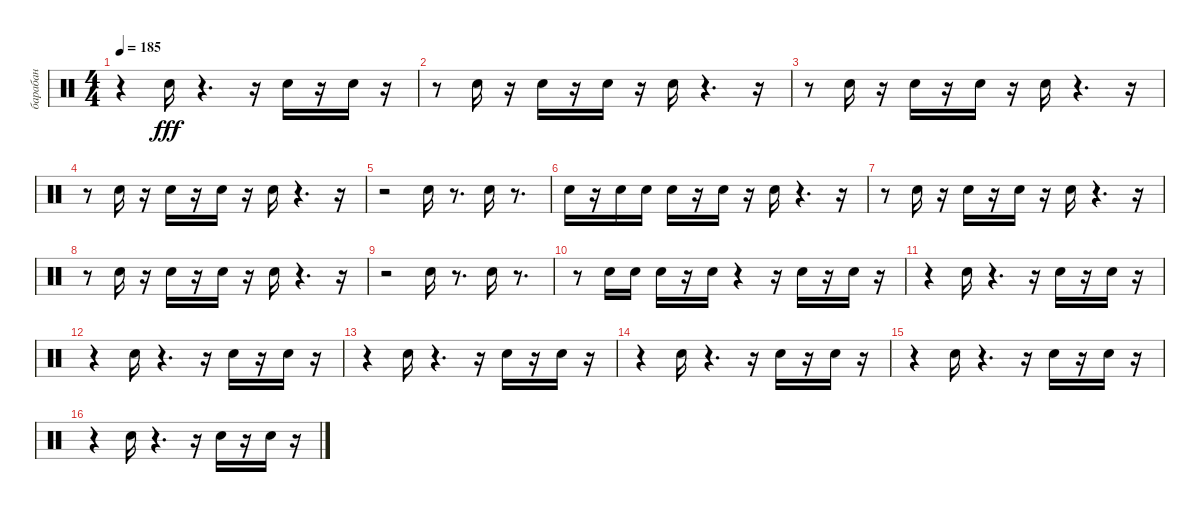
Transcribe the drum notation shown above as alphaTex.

\track ("барабан" "барабан") {instrument percussion}
\staff {score}
\articulation defaults
\ts (4 4)
\tempo 185
\clef neutral
\ks c
r.4{dy fff} "Snare (hit) 2".16 r.4{d} r.16 "Snare (hit) 2".16 r.16 "Snare (hit) 2".16 r.16 |
r.8 "Snare (hit) 2".16{balance 8} r.16 "Snare (hit) 2".16 r.16 "Snare (hit) 2".16{balance 10} r.16 "Snare (hit) 2".16{balance 16} r.4{d} r.16 |
r.8 "Snare (hit) 2".16{balance 10} r.16 "Snare (hit) 2".16{balance 9} r.16 "Snare (hit) 2".16{balance 6} r.16 "Snare (hit) 2".16{balance 4} r.4{d} r.16 |
r.8 "Snare (hit) 2".16{balance 5} r.16 "Snare (hit) 2".16{balance 7} r.16 "Snare (hit) 2".16{balance 11} r.16 "Snare (hit) 2".16{balance 14} r.4{d} r.16 |
r.2 "Snare (hit) 2".16{balance 15} r.8{d} "Snare (hit) 2".16 r.8{d} |
"Snare (hit) 2".16{balance 3} r.16 "Snare (hit) 2".16{balance 3} "Snare (hit) 2".16 "Snare (hit) 2".16 r.16 "Snare (hit) 2".16 r.16 "Snare (hit) 2".16{balance 10} r.4{d} r.16 |
r.8 "Snare (hit) 2".16{balance 12} r.16 "Snare (hit) 2".16{balance 10} r.16 "Snare (hit) 2".16{balance 4} r.16 "Snare (hit) 2".16{balance 3} r.4{d} r.16 |
r.8 "Snare (hit) 2".16{balance 8} r.16 "Snare (hit) 2".16{balance 10} r.16 "Snare (hit) 2".16{balance 12} r.16 "Snare (hit) 2".16{balance 14} r.4{d} r.16 |
r.2 "Snare (hit) 2".16{balance 16} r.8{d} "Snare (hit) 2".16{balance 9} r.8{d} |
r.8 "Snare (hit) 2".16{balance 14} "Snare (hit) 2".16{balance 11} "Snare (hit) 2".16{balance 2} r.16 "Snare (hit) 2".16{balance 1} r.4 r.16 "Snare (hit) 2".16{balance 9} r.16 "Snare (hit) 2".16{balance 8} r.16 |
r.4 "Snare (hit) 2".16 r.4{d} r.16 "Snare (hit) 2".16 r.16 "Snare (hit) 2".16 r.16 |
r.4 "Snare (hit) 2".16 r.4{d} r.16 "Snare (hit) 2".16 r.16 "Snare (hit) 2".16 r.16 |
r.4 "Snare (hit) 2".16 r.4{d} r.16 "Snare (hit) 2".16 r.16 "Snare (hit) 2".16 r.16 |
r.4 "Snare (hit) 2".16 r.4{d} r.16 "Snare (hit) 2".16 r.16 "Snare (hit) 2".16 r.16 |
r.4 "Snare (hit) 2".16 r.4{d} r.16 "Snare (hit) 2".16 r.16 "Snare (hit) 2".16 r.16 |
r.4 "Snare (hit) 2".16 r.4{d} r.16 "Snare (hit) 2".16 r.16 "Snare (hit) 2".16 r.16
